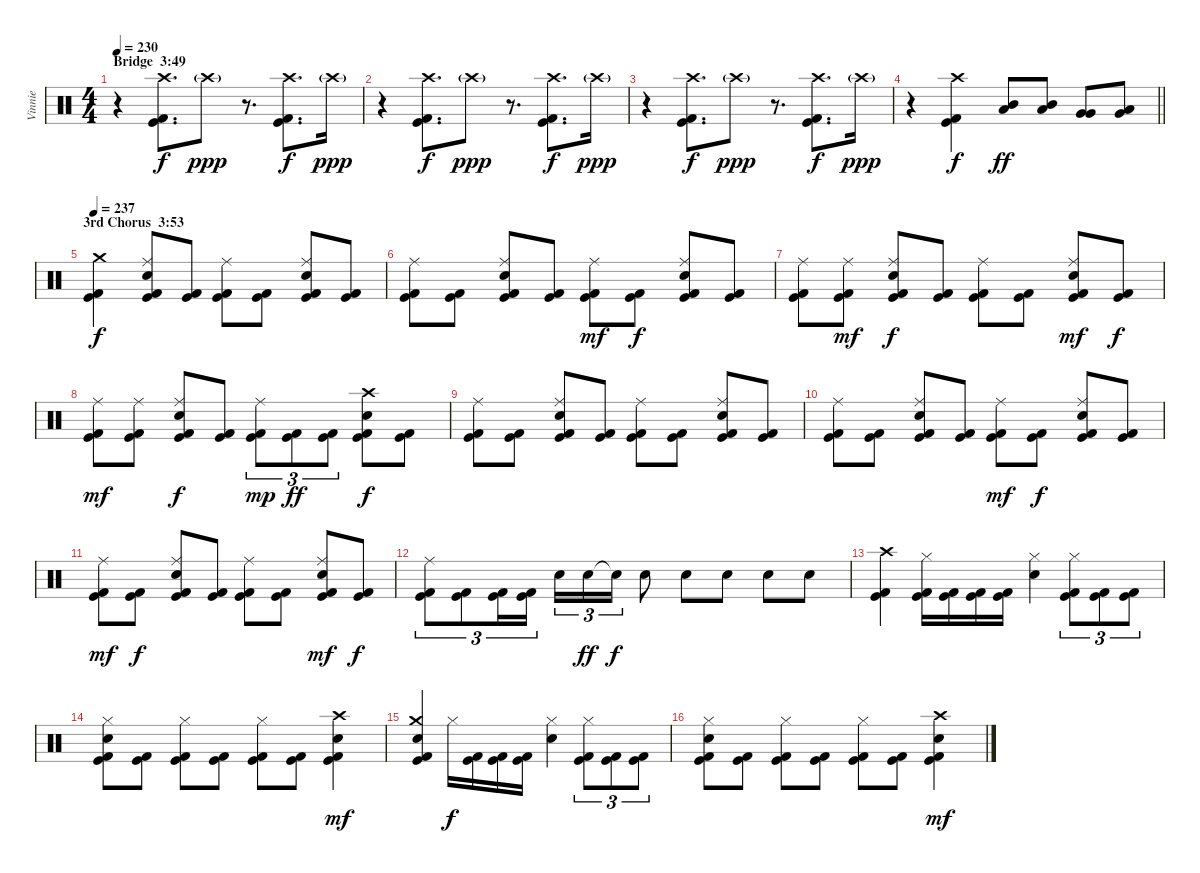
\track ("Vinnie" "Vinnie") {instrument percussion}
\staff {score}
\articulation defaults
\ts (4 4)
\section ("" "Bridge  3:49")
\tempo 230
\clef neutral
\ks c
r.4{dy fff} ("Crash high (hit)" "Kick (hit)" "Kick (hit) 2").8{d dy f} "Crash high (hit)"{g}.8{dy ppp} r.8{d} ("Crash high (hit)" "Kick (hit)" "Kick (hit) 2").8{d dy f} "Crash high (hit)"{g}.16{dy ppp} |
r.4 ("Crash high (hit)" "Kick (hit)" "Kick (hit) 2").8{d dy f} "Crash high (hit)"{g}.8{dy ppp} r.8{d} ("Crash high (hit)" "Kick (hit)" "Kick (hit) 2").8{d dy f} "Crash high (hit)"{g}.16{dy ppp} |
r.4 ("Crash high (hit)" "Kick (hit)" "Kick (hit) 2").8{d dy f} "Crash high (hit)"{g}.8{dy ppp} r.8{d} ("Crash high (hit)" "Kick (hit)" "Kick (hit) 2").8{d dy f} "Crash high (hit)"{g}.16{dy ppp} |
\barLineRight lightlight
r.4 ("Crash high (hit)" "Kick (hit)" "Kick (hit) 2").4{dy f} ("Mid Tom (hit)" "Low Tom (hit)").8{dy ff} ("Mid Tom (hit)" "Low Tom (hit)").8 ("Very Low Tom (hit)" "Very Low Tom (hit)").8 ("Very Low Tom (hit)" "Low Floor Tom (hit)").8 |
\section ("" "3rd Chorus  3:53")
\tempo 237
("Crash medium (hit)" "Kick (hit)" "Kick (hit) 2").4{dy f} ("Ride (middle)" "Electric Snare (hit)" "Kick (hit)" "Kick (hit) 2").8{bd 30} ("Kick (hit)" "Kick (hit) 2").8 ("Ride (middle)" "Kick (hit)" "Kick (hit) 2").8 ("Kick (hit)" "Kick (hit) 2").8 ("Ride (middle)" "Electric Snare (hit)" "Kick (hit)" "Kick (hit) 2").8{bd 30} ("Kick (hit)" "Kick (hit) 2").8 |
("Ride (middle)" "Kick (hit)" "Kick (hit) 2").8 ("Kick (hit)" "Kick (hit) 2").8 ("Ride (middle)" "Electric Snare (hit)" "Kick (hit)" "Kick (hit) 2").8{bd 30} ("Kick (hit)" "Kick (hit) 2").8 ("Ride (middle)" "Kick (hit)" "Kick (hit) 2").8{dy mf} ("Kick (hit)" "Kick (hit) 2").8{dy f} ("Ride (middle)" "Electric Snare (hit)" "Kick (hit)" "Kick (hit) 2").8{bd 30} ("Kick (hit)" "Kick (hit) 2").8 |
("Ride (middle)" "Kick (hit)" "Kick (hit) 2").8 ("Ride (middle)" "Kick (hit)" "Kick (hit) 2").8{dy mf} ("Ride (middle)" "Electric Snare (hit)" "Kick (hit)" "Kick (hit) 2").8{dy f} ("Kick (hit)" "Kick (hit) 2").8 ("Ride (middle)" "Kick (hit)" "Kick (hit) 2").8 ("Kick (hit)" "Kick (hit) 2").8 ("Ride (middle)" "Electric Snare (hit)" "Kick (hit)" "Kick (hit) 2").8{dy mf} ("Kick (hit)" "Kick (hit) 2").8{dy f} |
("Ride (middle)" "Kick (hit)" "Kick (hit) 2").8{dy mf} ("Ride (middle)" "Kick (hit)" "Kick (hit) 2").8 ("Ride (middle)" "Electric Snare (hit)" "Kick (hit)" "Kick (hit) 2").8{dy f} ("Kick (hit)" "Kick (hit) 2").8 ("Ride (middle)" "Kick (hit)" "Kick (hit) 2").8{tu (3 2) dy mp} ("Kick (hit)" "Kick (hit) 2").8{tu (3 2) dy ff} ("Kick (hit)" "Kick (hit) 2").8{tu (3 2)} ("Crash high (hit)" "Electric Snare (hit)" "Kick (hit)" "Kick (hit) 2").8{bd 30 dy f} ("Kick (hit)" "Kick (hit) 2").8 |
("Ride (middle)" "Kick (hit)" "Kick (hit) 2").8 ("Kick (hit)" "Kick (hit) 2").8 ("Ride (middle)" "Electric Snare (hit)" "Kick (hit)" "Kick (hit) 2").8 ("Kick (hit)" "Kick (hit) 2").8 ("Ride (middle)" "Kick (hit)" "Kick (hit) 2").8 ("Kick (hit)" "Kick (hit) 2").8 ("Ride (middle)" "Electric Snare (hit)" "Kick (hit)" "Kick (hit) 2").8 ("Kick (hit)" "Kick (hit) 2").8 |
("Ride (middle)" "Kick (hit)" "Kick (hit) 2").8 ("Kick (hit)" "Kick (hit) 2").8 ("Ride (middle)" "Electric Snare (hit)" "Kick (hit)" "Kick (hit) 2").8 ("Kick (hit)" "Kick (hit) 2").8 ("Ride (middle)" "Kick (hit)" "Kick (hit) 2").8{dy mf} ("Kick (hit)" "Kick (hit) 2").8{dy f} ("Ride (middle)" "Electric Snare (hit)" "Kick (hit)" "Kick (hit) 2").8 ("Kick (hit)" "Kick (hit) 2").8 |
("Ride (middle)" "Kick (hit)" "Kick (hit) 2").8{dy mf} ("Kick (hit)" "Kick (hit) 2").8{dy f} ("Ride (middle)" "Electric Snare (hit)" "Kick (hit)" "Kick (hit) 2").8 ("Kick (hit)" "Kick (hit) 2").8 ("Ride (middle)" "Kick (hit)" "Kick (hit) 2").8 ("Kick (hit)" "Kick (hit) 2").8 ("Ride (middle)" "Electric Snare (hit)" "Kick (hit)" "Kick (hit) 2").8{dy mf} ("Kick (hit)" "Kick (hit) 2").8{dy f} |
("Ride (middle)" "Kick (hit)" "Kick (hit) 2").8{tu (3 2)} ("Kick (hit)" "Kick (hit) 2").8{tu (3 2)} ("Kick (hit)" "Kick (hit) 2").16{tu (3 2)} ("Kick (hit)" "Kick (hit) 2").16{tu (3 2)} "Electric Snare (hit)".16{tu (3 2)} "Electric Snare (hit)".16{tu (3 2) dy ff} "Snare (hit)"{t}.16{tu (3 2) dy f} "Electric Snare (hit)".8 "Electric Snare (hit)".8 "Electric Snare (hit)".8 "Electric Snare (hit)".8 "Electric Snare (hit)".8 |
("Crash high (hit)" "Kick (hit)" "Kick (hit) 2").4 ("Hi-Hat (closed)" "Kick (hit)" "Kick (hit) 2").16 ("Kick (hit)" "Kick (hit) 2").16 ("Kick (hit)" "Kick (hit) 2").16 ("Kick (hit)" "Kick (hit) 2").16 ("Hi-Hat (closed)" "Electric Snare (hit)").4 ("Hi-Hat (closed)" "Kick (hit)" "Kick (hit) 2").8{tu (3 2)} ("Kick (hit)" "Kick (hit) 2").8{tu (3 2)} ("Kick (hit)" "Kick (hit) 2").8{tu (3 2)} |
("Hi-Hat (closed)" "Electric Snare (hit)" "Kick (hit)" "Kick (hit) 2").8{bd 30} ("Kick (hit)" "Kick (hit) 2").8 ("Hi-Hat (closed)" "Kick (hit)" "Kick (hit) 2").8 ("Kick (hit)" "Kick (hit) 2").8 ("Hi-Hat (closed)" "Kick (hit)" "Kick (hit) 2").8 ("Kick (hit)" "Kick (hit) 2").8 ("Crash high (hit)" "Electric Snare (hit)" "Kick (hit)" "Kick (hit) 2").4{bd 30 dy mf} |
("Crash medium (hit)" "Electric Snare (hit)" "Kick (hit)" "Kick (hit) 2").4{bd 60} "Hi-Hat (closed)".16{dy f} ("Kick (hit)" "Kick (hit) 2").16 ("Kick (hit)" "Kick (hit) 2").16 ("Kick (hit)" "Kick (hit) 2").16 ("Hi-Hat (closed)" "Electric Snare (hit)").4 ("Hi-Hat (closed)" "Kick (hit)" "Kick (hit) 2").8{tu (3 2)} ("Kick (hit)" "Kick (hit) 2").8{tu (3 2)} ("Kick (hit)" "Kick (hit) 2").8{tu (3 2)} |
("Hi-Hat (closed)" "Electric Snare (hit)" "Kick (hit)" "Kick (hit) 2").8{bd 30} ("Kick (hit)" "Kick (hit) 2").8 ("Hi-Hat (closed)" "Kick (hit)" "Kick (hit) 2").8 ("Kick (hit)" "Kick (hit) 2").8 ("Hi-Hat (closed)" "Kick (hit)" "Kick (hit) 2").8 ("Kick (hit)" "Kick (hit) 2").8 ("Crash high (hit)" "Electric Snare (hit)" "Kick (hit)" "Kick (hit) 2").4{dy mf}
